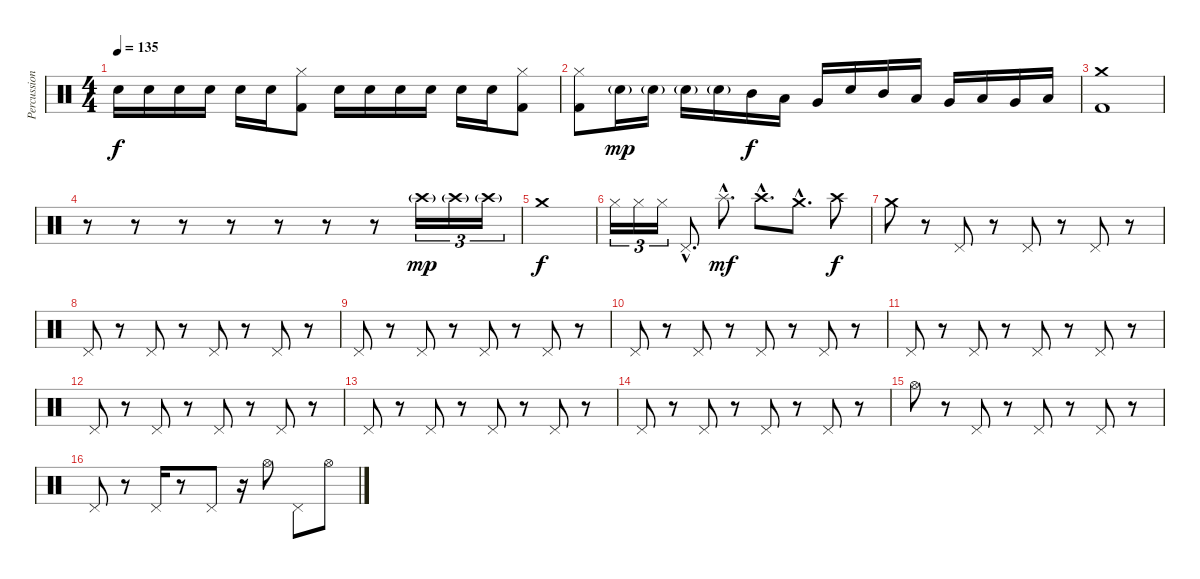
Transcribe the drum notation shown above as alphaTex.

\track ("Percussion" "Percussion") {instrument percussion}
\staff {score}
\articulation defaults
\ts (4 4)
\tempo 135
\clef neutral
\ks c "Electric Snare (hit)".16{dy f} "Electric Snare (hit)".16 "Electric Snare (hit)".16 "Electric Snare (hit)".16 "Electric Snare (hit)".16 "Electric Snare (hit)".16
("Hi-Hat (closed)" "Kick (hit) 2").8 "Electric Snare (hit)".16 "Electric Snare (hit)".16 "Electric Snare (hit)".16 "Electric Snare (hit)".16 "Electric Snare (hit)".16 "Electric Snare (hit)".16 ("Hi-Hat (closed)" "Kick (hit) 2").8 |
("Hi-Hat (closed)" "Kick (hit) 2").8 "Electric Snare (hit)"{g}.16{dy mp} "Electric Snare (hit)"{g}.16 "Electric Snare (hit)"{g}.16 "Electric Snare (hit)"{g}.16 "Mid Tom (hit)".16{dy f} "Low Tom (hit)".16 "Very Low Tom (hit)".16 "Electric Snare (hit)".16 "Mid Tom (hit)".16 "Low Tom (hit)".16 "Very Low Tom (hit)".16 "Low Floor Tom (hit)".16 "Very Low Tom (hit)".16 "Low Floor Tom (hit)".16 |
("Crash medium (hit)" "Kick (hit) 2").1 |
r.8 r.8 r.8 r.8 r.8 r.8 r.8 "Crash high (hit)"{g}.16{tu (3 2) dy mp} "Crash high (hit)"{g}.16{tu (3 2)} "Crash high (hit)"{g}.16{tu (3 2)} |
"Crash medium (hit)".1{dy f} |
"Hi-Hat (closed)".16{tu (3 2)} "Hi-Hat (closed)".16{tu (3 2)} "Hi-Hat (closed)".16{tu (3 2)} "Pedal Hi-Hat (hit)"{hac}.8{d} "Splash (hit)"{hac}.8{d dy mf} "Crash high (hit)"{hac}.8{d} "Crash medium (hit)"{hac}.8{d} "Crash high (hit)".8{dy f} |
"Crash medium (hit)".8 r.8 "Pedal Hi-Hat (hit)".8 r.8 "Pedal Hi-Hat (hit)".8 r.8 "Pedal Hi-Hat (hit)".8 r.8 |
"Pedal Hi-Hat (hit)".8 r.8 "Pedal Hi-Hat (hit)".8 r.8 "Pedal Hi-Hat (hit)".8 r.8 "Pedal Hi-Hat (hit)".8 r.8 |
"Pedal Hi-Hat (hit)".8 r.8 "Pedal Hi-Hat (hit)".8 r.8 "Pedal Hi-Hat (hit)".8 r.8 "Pedal Hi-Hat (hit)".8 r.8 |
"Pedal Hi-Hat (hit)".8 r.8 "Pedal Hi-Hat (hit)".8 r.8 "Pedal Hi-Hat (hit)".8 r.8 "Pedal Hi-Hat (hit)".8 r.8 |
"Pedal Hi-Hat (hit)".8 r.8 "Pedal Hi-Hat (hit)".8 r.8 "Pedal Hi-Hat (hit)".8 r.8 "Pedal Hi-Hat (hit)".8 r.8 |
"Pedal Hi-Hat (hit)".8 r.8 "Pedal Hi-Hat (hit)".8 r.8 "Pedal Hi-Hat (hit)".8 r.8 "Pedal Hi-Hat (hit)".8 r.8 |
"Pedal Hi-Hat (hit)".8 r.8 "Pedal Hi-Hat (hit)".8 r.8 "Pedal Hi-Hat (hit)".8 r.8 "Pedal Hi-Hat (hit)".8 r.8 |
"Pedal Hi-Hat (hit)".8 r.8 "Pedal Hi-Hat (hit)".8 r.8 "Pedal Hi-Hat (hit)".8 r.8 "Pedal Hi-Hat (hit)".8 r.8 |
"Hi-Hat (open)".8 r.8 "Pedal Hi-Hat (hit)".8 r.8 "Pedal Hi-Hat (hit)".8 r.8 "Pedal Hi-Hat (hit)".8 r.8 |
"Pedal Hi-Hat (hit)".8 r.8 "Pedal Hi-Hat (hit)".16 r.8 "Pedal Hi-Hat (hit)".8 r.16 "Hi-Hat (open)".8 "Pedal Hi-Hat (hit)".8 "Hi-Hat (open)".8
